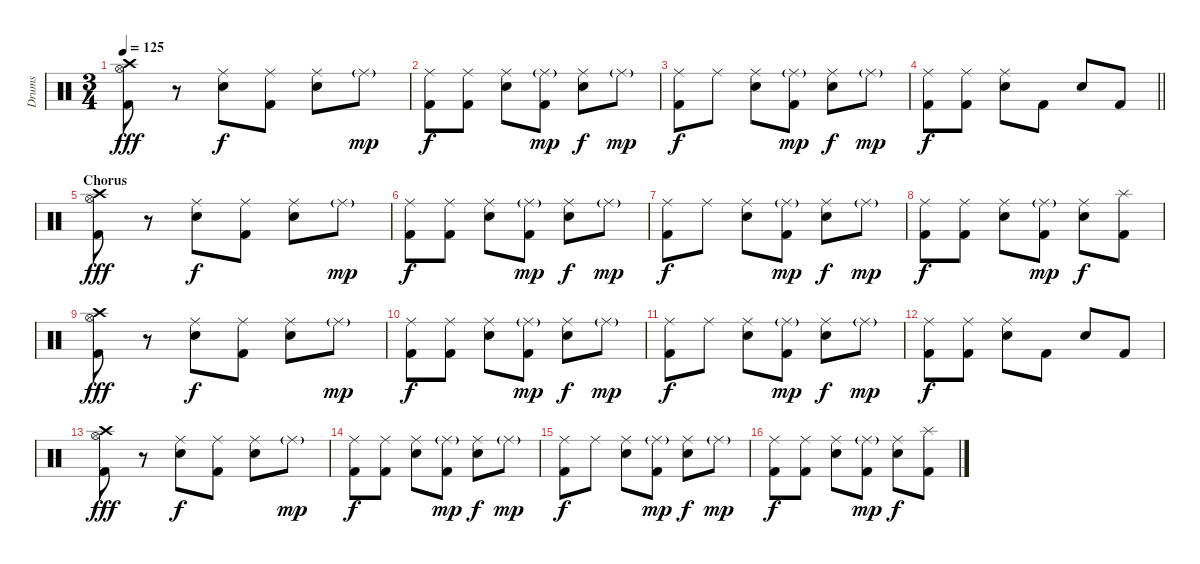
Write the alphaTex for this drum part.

\track ("Drums" "Drums") {instrument percussion}
\staff {score}
\articulation defaults
\ts (3 4)
\tempo 125
\clef neutral
\ks c
("Crash high (hit)" "Hi-Hat (open)" "Kick (hit) 2").8{dy fff} r.8 ("Ride (middle)" "Electric Snare (hit)").8{dy f} ("Ride (middle)" "Kick (hit) 2").8 ("Ride (middle)" "Electric Snare (hit)").8 "Ride (middle)"{g}.8{dy mp} |
("Ride (middle)" "Kick (hit) 2").8{dy f} ("Ride (middle)" "Kick (hit) 2").8 ("Ride (middle)" "Electric Snare (hit)").8 ("Ride (middle)"{g} "Kick (hit) 2").8{dy mp} ("Ride (middle)" "Electric Snare (hit)").8{dy f} "Ride (middle)"{g}.8{dy mp} |
("Ride (middle)" "Kick (hit) 2").8{dy f} "Ride (middle)".8 ("Ride (middle)" "Electric Snare (hit)").8 ("Ride (middle)"{g} "Kick (hit) 2").8{dy mp} ("Ride (middle)" "Electric Snare (hit)").8{dy f} "Ride (middle)"{g}.8{dy mp} |
\barLineRight lightlight
("Ride (middle)" "Kick (hit) 2").8{dy f} ("Ride (middle)" "Kick (hit) 2").8 ("Ride (middle)" "Electric Snare (hit)").8 "Kick (hit) 2".8 "Electric Snare (hit)".8 "Kick (hit) 2".8 |
\section ("" "Chorus")
("Crash high (hit)" "Hi-Hat (open)" "Kick (hit) 2").8{dy fff} r.8 ("Ride (middle)" "Electric Snare (hit)").8{dy f} ("Ride (middle)" "Kick (hit) 2").8 ("Ride (middle)" "Electric Snare (hit)").8 "Ride (middle)"{g}.8{dy mp} |
("Ride (middle)" "Kick (hit) 2").8{dy f} ("Ride (middle)" "Kick (hit) 2").8 ("Ride (middle)" "Electric Snare (hit)").8 ("Ride (middle)"{g} "Kick (hit) 2").8{dy mp} ("Ride (middle)" "Electric Snare (hit)").8{dy f} "Ride (middle)"{g}.8{dy mp} |
("Ride (middle)" "Kick (hit) 2").8{dy f} "Ride (middle)".8 ("Ride (middle)" "Electric Snare (hit)").8 ("Ride (middle)"{g} "Kick (hit) 2").8{dy mp} ("Ride (middle)" "Electric Snare (hit)").8{dy f} "Ride (middle)"{g}.8{dy mp} |
("Ride (middle)" "Kick (hit) 2").8{dy f} ("Ride (middle)" "Kick (hit) 2").8 ("Ride (middle)" "Electric Snare (hit)").8 ("Ride (middle)"{g} "Kick (hit) 2").8{dy mp} ("Ride (middle)" "Electric Snare (hit)").8{dy f} ("Splash (hit)" "Kick (hit) 2").8 |
("Crash high (hit)" "Hi-Hat (open)" "Kick (hit) 2").8{dy fff} r.8 ("Ride (middle)" "Electric Snare (hit)").8{dy f} ("Ride (middle)" "Kick (hit) 2").8 ("Ride (middle)" "Electric Snare (hit)").8 "Ride (middle)"{g}.8{dy mp} |
("Ride (middle)" "Kick (hit) 2").8{dy f} ("Ride (middle)" "Kick (hit) 2").8 ("Ride (middle)" "Electric Snare (hit)").8 ("Ride (middle)"{g} "Kick (hit) 2").8{dy mp} ("Ride (middle)" "Electric Snare (hit)").8{dy f} "Ride (middle)"{g}.8{dy mp} |
("Ride (middle)" "Kick (hit) 2").8{dy f} "Ride (middle)".8 ("Ride (middle)" "Electric Snare (hit)").8 ("Ride (middle)"{g} "Kick (hit) 2").8{dy mp} ("Ride (middle)" "Electric Snare (hit)").8{dy f} "Ride (middle)"{g}.8{dy mp} |
("Ride (middle)" "Kick (hit) 2").8{dy f} ("Ride (middle)" "Kick (hit) 2").8 ("Ride (middle)" "Electric Snare (hit)").8 "Kick (hit) 2".8 "Electric Snare (hit)".8 "Kick (hit) 2".8 |
("Crash high (hit)" "Hi-Hat (open)" "Kick (hit) 2").8{dy fff} r.8 ("Ride (middle)" "Electric Snare (hit)").8{dy f} ("Ride (middle)" "Kick (hit) 2").8 ("Ride (middle)" "Electric Snare (hit)").8 "Ride (middle)"{g}.8{dy mp} |
("Ride (middle)" "Kick (hit) 2").8{dy f} ("Ride (middle)" "Kick (hit) 2").8 ("Ride (middle)" "Electric Snare (hit)").8 ("Ride (middle)"{g} "Kick (hit) 2").8{dy mp} ("Ride (middle)" "Electric Snare (hit)").8{dy f} "Ride (middle)"{g}.8{dy mp} |
("Ride (middle)" "Kick (hit) 2").8{dy f} "Ride (middle)".8 ("Ride (middle)" "Electric Snare (hit)").8 ("Ride (middle)"{g} "Kick (hit) 2").8{dy mp} ("Ride (middle)" "Electric Snare (hit)").8{dy f} "Ride (middle)"{g}.8{dy mp} |
("Ride (middle)" "Kick (hit) 2").8{dy f} ("Ride (middle)" "Kick (hit) 2").8 ("Ride (middle)" "Electric Snare (hit)").8 ("Ride (middle)"{g} "Kick (hit) 2").8{dy mp} ("Ride (middle)" "Electric Snare (hit)").8{dy f} ("Splash (hit)" "Kick (hit) 2").8
